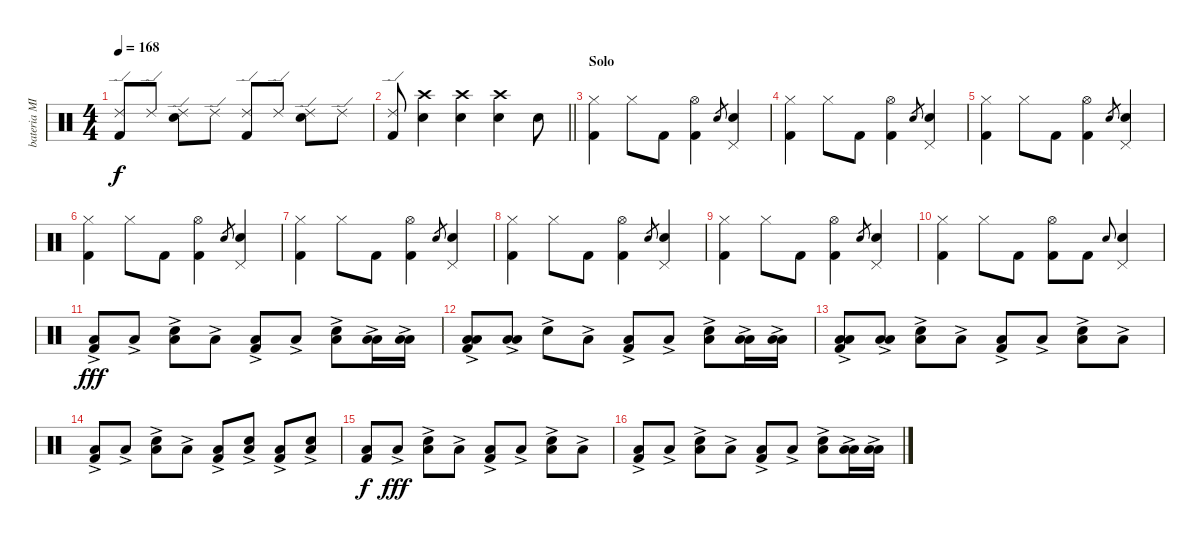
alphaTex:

\track ("bateria MIDI" "bateria MI") {instrument percussion}
\staff {score}
\articulation defaults
\ts (4 4)
\tempo 168
\clef neutral
\ks c
("Ride (edge) 2" "Kick (hit) 2").8{dy f} "Ride (edge) 2".8 ("Ride (edge) 2" "Snare (hit) 2").8 "Ride (edge) 2".8 ("Ride (edge) 2" "Kick (hit) 2").8 "Ride (edge) 2".8 ("Ride (edge) 2" "Snare (hit) 2").8 "Ride (edge) 2".8 |
\barLineRight lightlight
("Ride (edge) 2" "Kick (hit) 2").8 ("Crash high (hit)" "Snare (hit) 2").4 ("Crash high (hit)" "Snare (hit) 2").4 ("Crash high (hit)" "Snare (hit) 2").4 "Snare (hit) 2".8 |
\section ("" "Solo")
("Hi-Hat (closed)" "Kick (hit) 2").4 "Hi-Hat (closed)".8 "Kick (hit) 2".8 ("Hi-Hat (open)" "Kick (hit) 2").4 "Snare (hit) 2".8{gr} ("Pedal Hi-Hat (hit)" "Snare (hit) 2").4 |
("Hi-Hat (closed)" "Kick (hit) 2").4 "Hi-Hat (closed)".8 "Kick (hit) 2".8 ("Hi-Hat (open)" "Kick (hit) 2").4 "Snare (hit) 2".8{gr} ("Pedal Hi-Hat (hit)" "Snare (hit) 2").4 |
("Hi-Hat (closed)" "Kick (hit) 2").4 "Hi-Hat (closed)".8 "Kick (hit) 2".8 ("Hi-Hat (open)" "Kick (hit) 2").4 "Snare (hit) 2".8{gr} ("Pedal Hi-Hat (hit)" "Snare (hit) 2").4 |
("Hi-Hat (closed)" "Kick (hit) 2").4 "Hi-Hat (closed)".8 "Kick (hit) 2".8 ("Hi-Hat (open)" "Kick (hit) 2").4 "Snare (hit) 2".8{gr} ("Pedal Hi-Hat (hit)" "Snare (hit) 2").4 |
("Hi-Hat (closed)" "Kick (hit) 2").4 "Hi-Hat (closed)".8 "Kick (hit) 2".8 ("Hi-Hat (open)" "Kick (hit) 2").4 "Snare (hit) 2".8{gr} ("Pedal Hi-Hat (hit)" "Snare (hit) 2").4 |
("Hi-Hat (closed)" "Kick (hit) 2").4 "Hi-Hat (closed)".8 "Kick (hit) 2".8 ("Hi-Hat (open)" "Kick (hit) 2").4 "Snare (hit) 2".8{gr} ("Pedal Hi-Hat (hit)" "Snare (hit) 2").4 |
("Hi-Hat (closed)" "Kick (hit) 2").4 "Hi-Hat (closed)".8 "Kick (hit) 2".8 ("Hi-Hat (open)" "Kick (hit) 2").4 "Snare (hit) 2".8{gr} ("Pedal Hi-Hat (hit)" "Snare (hit) 2").4 |
("Hi-Hat (closed)" "Kick (hit) 2").4 "Hi-Hat (closed)".8 "Kick (hit) 2".8 ("Hi-Hat (open)" "Kick (hit) 2").8 "Kick (hit) 2".8 "Snare (hit) 2".8{gr onbeat} ("Pedal Hi-Hat (hit)" "Snare (hit) 2").4 |
("Low Floor Tom (hit)"{ac} "Kick (hit) 2"{ac}).8{dy fff} "Low Floor Tom (hit)"{ac}.8 ("Low Floor Tom (hit)"{ac} "Snare (hit) 2"{ac}).8 "Low Floor Tom (hit)"{ac}.8 ("Low Floor Tom (hit)"{ac} "Kick (hit) 2"{ac}).8 "Low Floor Tom (hit)"{ac}.8 ("Low Floor Tom (hit)"{ac} "Snare (hit) 2"{ac}).8 ("Low Floor Tom (hit)"{ac} "Low Floor Tom (hit)"{ac}).16 ("Low Floor Tom (hit)"{ac} "Low Floor Tom (hit)"{ac}).16 |
("Low Floor Tom (hit)"{ac} "Kick (hit) 2"{ac} "Low Floor Tom (hit)"{ac}).8 ("Low Floor Tom (hit)"{ac} "Low Floor Tom (hit)"{ac}).8 "Snare (hit) 2"{ac}.8 "Low Floor Tom (hit)"{ac}.8 ("Low Floor Tom (hit)"{ac} "Kick (hit) 2"{ac}).8 "Low Floor Tom (hit)"{ac}.8 ("Low Floor Tom (hit)"{ac} "Snare (hit) 2"{ac}).8 ("Low Floor Tom (hit)"{ac} "Low Floor Tom (hit)"{ac}).16 ("Low Floor Tom (hit)"{ac} "Low Floor Tom (hit)"{ac}).16 |
("Low Floor Tom (hit)"{ac} "Kick (hit) 2"{ac} "Low Floor Tom (hit)"{ac}).8 ("Low Floor Tom (hit)"{ac} "Low Floor Tom (hit)"{ac}).8 ("Low Floor Tom (hit)"{ac} "Snare (hit) 2"{ac}).8 "Low Floor Tom (hit)"{ac}.8 ("Low Floor Tom (hit)"{ac} "Kick (hit) 2"{ac}).8 "Low Floor Tom (hit)"{ac}.8 ("Low Floor Tom (hit)"{ac} "Snare (hit) 2"{ac}).8 "Low Floor Tom (hit)"{ac}.8 |
("Low Floor Tom (hit)"{ac} "Kick (hit) 2"{ac}).8 "Low Floor Tom (hit)"{ac}.8 ("Low Floor Tom (hit)"{ac} "Snare (hit) 2"{ac}).8 "Low Floor Tom (hit)"{ac}.8 ("Low Floor Tom (hit)" "Kick (hit) 2"{ac}).8 ("Low Floor Tom (hit)" "Snare (hit) 2"{ac}).8 ("Low Floor Tom (hit)" "Kick (hit) 2"{ac}).8 ("Low Floor Tom (hit)" "Snare (hit) 2"{ac}).8 |
("Low Floor Tom (hit)" "Kick (hit) 2").8{dy f} "Low Floor Tom (hit)"{ac}.8{dy fff} ("Low Floor Tom (hit)"{ac} "Snare (hit) 2"{ac}).8 "Low Floor Tom (hit)"{ac}.8 ("Low Floor Tom (hit)"{ac} "Kick (hit) 2"{ac}).8 "Low Floor Tom (hit)"{ac}.8 ("Low Floor Tom (hit)"{ac} "Snare (hit) 2"{ac}).8 "Low Floor Tom (hit)"{ac}.8 |
("Low Floor Tom (hit)"{ac} "Kick (hit) 2"{ac}).8 "Low Floor Tom (hit)"{ac}.8 ("Low Floor Tom (hit)"{ac} "Snare (hit) 2"{ac}).8 "Low Floor Tom (hit)"{ac}.8 ("Low Floor Tom (hit)"{ac} "Kick (hit) 2"{ac}).8 "Low Floor Tom (hit)"{ac}.8 ("Low Floor Tom (hit)"{ac} "Snare (hit) 2"{ac}).8 ("Low Floor Tom (hit)"{ac} "Low Floor Tom (hit)"{ac}).16 ("Low Floor Tom (hit)"{ac} "Low Floor Tom (hit)"{ac}).16
